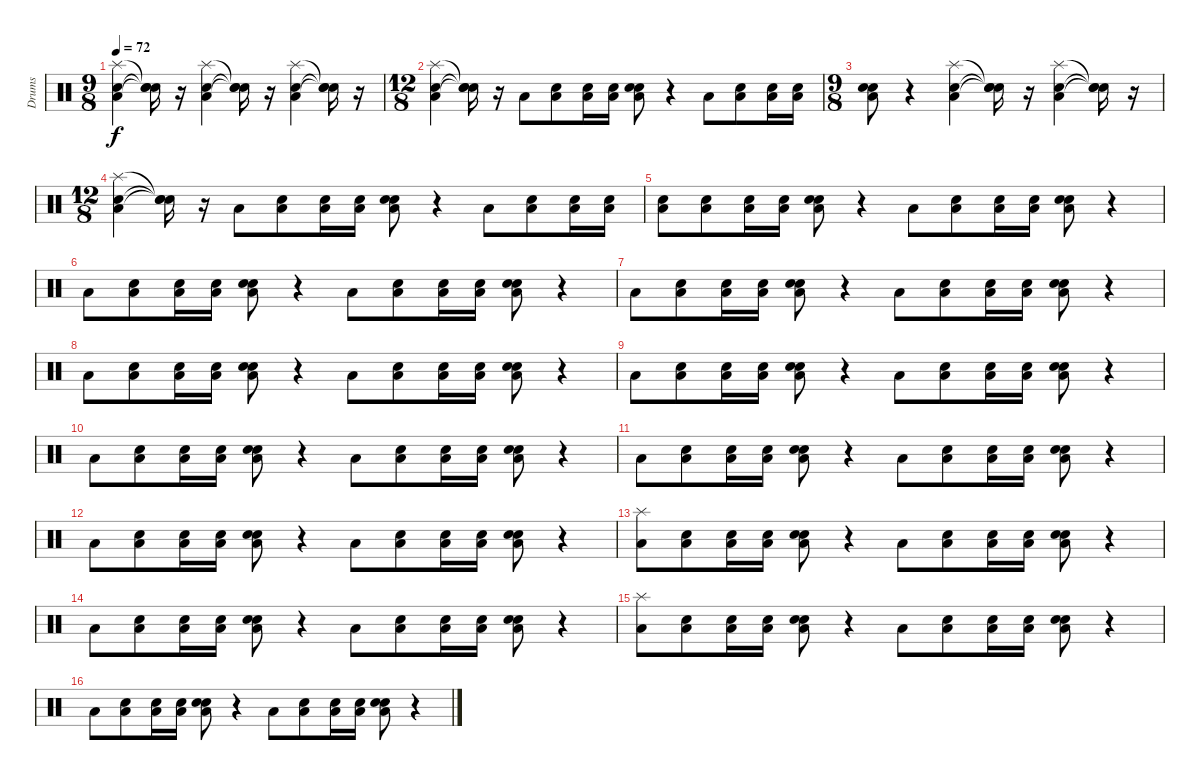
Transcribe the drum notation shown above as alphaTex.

\track ("Drums" "Drums") {instrument percussion}
\staff {score}
\articulation defaults
\ts (9 8)
\tempo 72
\clef neutral
\ks c
("Electric Snare (hit)" "Low Floor Tom (hit)" "Splash (hit)").4{dy f} ("Snare (hit)"{t} "Snare (hit)"{t} "Snare (hit)"{t}).16 r.16 ("Electric Snare (hit)" "Low Floor Tom (hit)" "Splash (hit)").4 ("Snare (hit)"{t} "Snare (hit)"{t} "Snare (hit)"{t}).16 r.16 ("Electric Snare (hit)" "Low Floor Tom (hit)" "Splash (hit)").4 ("Snare (hit)"{t} "Snare (hit)"{t} "Snare (hit)"{t}).16 r.16 |
\ts (12 8)
("Electric Snare (hit)" "Low Floor Tom (hit)" "Splash (hit)").4 ("Snare (hit)"{t} "Snare (hit)"{t} "Snare (hit)"{t}).16 r.16 "Low Floor Tom (hit)".8 ("Snare (hit)" "Low Floor Tom (hit)").8 ("Snare (hit)" "Low Floor Tom (hit)").16 ("Snare (hit)" "Low Floor Tom (hit)").16 ("Snare (hit)" "Electric Snare (hit)" "Low Floor Tom (hit)").8 r.4 "Low Floor Tom (hit)".8 ("Snare (hit)" "Low Floor Tom (hit)").8 ("Snare (hit)" "Low Floor Tom (hit)").16 ("Snare (hit)" "Low Floor Tom (hit)").16 |
\ts (9 8)
("Snare (hit)" "Electric Snare (hit)" "Low Floor Tom (hit)").8 r.4 ("Electric Snare (hit)" "Low Floor Tom (hit)" "Splash (hit)").4 ("Snare (hit)"{t} "Snare (hit)"{t} "Snare (hit)"{t}).16 r.16 ("Electric Snare (hit)" "Low Floor Tom (hit)" "Splash (hit)").4 ("Snare (hit)"{t} "Snare (hit)"{t} "Snare (hit)"{t}).16 r.16 |
\ts (12 8)
("Electric Snare (hit)" "Low Floor Tom (hit)" "Splash (hit)").4 ("Snare (hit)"{t} "Snare (hit)"{t} "Snare (hit)"{t}).16 r.16 "Low Floor Tom (hit)".8 ("Snare (hit)" "Low Floor Tom (hit)").8 ("Snare (hit)" "Low Floor Tom (hit)").16 ("Snare (hit)" "Low Floor Tom (hit)").16 ("Snare (hit)" "Electric Snare (hit)" "Low Floor Tom (hit)").8 r.4 "Low Floor Tom (hit)".8 ("Snare (hit)" "Low Floor Tom (hit)").8 ("Snare (hit)" "Low Floor Tom (hit)").16 ("Snare (hit)" "Low Floor Tom (hit)").16 |
("Snare (hit)" "Low Floor Tom (hit)").8 ("Snare (hit)" "Low Floor Tom (hit)").8 ("Snare (hit)" "Low Floor Tom (hit)").16 ("Snare (hit)" "Low Floor Tom (hit)").16 ("Snare (hit)" "Electric Snare (hit)" "Low Floor Tom (hit)").8 r.4 "Low Floor Tom (hit)".8 ("Snare (hit)" "Low Floor Tom (hit)").8 ("Snare (hit)" "Low Floor Tom (hit)").16 ("Snare (hit)" "Low Floor Tom (hit)").16 ("Snare (hit)" "Electric Snare (hit)" "Low Floor Tom (hit)").8 r.4 |
"Low Floor Tom (hit)".8 ("Snare (hit)" "Low Floor Tom (hit)").8 ("Snare (hit)" "Low Floor Tom (hit)").16 ("Snare (hit)" "Low Floor Tom (hit)").16 ("Snare (hit)" "Electric Snare (hit)" "Low Floor Tom (hit)").8 r.4 "Low Floor Tom (hit)".8 ("Snare (hit)" "Low Floor Tom (hit)").8 ("Snare (hit)" "Low Floor Tom (hit)").16 ("Snare (hit)" "Low Floor Tom (hit)").16 ("Snare (hit)" "Electric Snare (hit)" "Low Floor Tom (hit)").8 r.4 |
"Low Floor Tom (hit)".8 ("Snare (hit)" "Low Floor Tom (hit)").8 ("Snare (hit)" "Low Floor Tom (hit)").16 ("Snare (hit)" "Low Floor Tom (hit)").16 ("Snare (hit)" "Electric Snare (hit)" "Low Floor Tom (hit)").8 r.4 "Low Floor Tom (hit)".8 ("Snare (hit)" "Low Floor Tom (hit)").8 ("Snare (hit)" "Low Floor Tom (hit)").16 ("Snare (hit)" "Low Floor Tom (hit)").16 ("Snare (hit)" "Electric Snare (hit)" "Low Floor Tom (hit)").8 r.4 |
"Low Floor Tom (hit)".8 ("Snare (hit)" "Low Floor Tom (hit)").8 ("Snare (hit)" "Low Floor Tom (hit)").16 ("Snare (hit)" "Low Floor Tom (hit)").16 ("Snare (hit)" "Electric Snare (hit)" "Low Floor Tom (hit)").8 r.4 "Low Floor Tom (hit)".8 ("Snare (hit)" "Low Floor Tom (hit)").8 ("Snare (hit)" "Low Floor Tom (hit)").16 ("Snare (hit)" "Low Floor Tom (hit)").16 ("Snare (hit)" "Electric Snare (hit)" "Low Floor Tom (hit)").8 r.4 |
"Low Floor Tom (hit)".8 ("Snare (hit)" "Low Floor Tom (hit)").8 ("Snare (hit)" "Low Floor Tom (hit)").16 ("Snare (hit)" "Low Floor Tom (hit)").16 ("Snare (hit)" "Electric Snare (hit)" "Low Floor Tom (hit)").8 r.4 "Low Floor Tom (hit)".8 ("Snare (hit)" "Low Floor Tom (hit)").8 ("Snare (hit)" "Low Floor Tom (hit)").16 ("Snare (hit)" "Low Floor Tom (hit)").16 ("Snare (hit)" "Electric Snare (hit)" "Low Floor Tom (hit)").8 r.4 |
"Low Floor Tom (hit)".8 ("Snare (hit)" "Low Floor Tom (hit)").8 ("Snare (hit)" "Low Floor Tom (hit)").16 ("Snare (hit)" "Low Floor Tom (hit)").16 ("Snare (hit)" "Electric Snare (hit)" "Low Floor Tom (hit)").8 r.4 "Low Floor Tom (hit)".8 ("Snare (hit)" "Low Floor Tom (hit)").8 ("Snare (hit)" "Low Floor Tom (hit)").16 ("Snare (hit)" "Low Floor Tom (hit)").16 ("Snare (hit)" "Electric Snare (hit)" "Low Floor Tom (hit)").8 r.4 |
"Low Floor Tom (hit)".8 ("Snare (hit)" "Low Floor Tom (hit)").8 ("Snare (hit)" "Low Floor Tom (hit)").16 ("Snare (hit)" "Low Floor Tom (hit)").16 ("Snare (hit)" "Electric Snare (hit)" "Low Floor Tom (hit)").8 r.4 "Low Floor Tom (hit)".8 ("Snare (hit)" "Low Floor Tom (hit)").8 ("Snare (hit)" "Low Floor Tom (hit)").16 ("Snare (hit)" "Low Floor Tom (hit)").16 ("Snare (hit)" "Electric Snare (hit)" "Low Floor Tom (hit)").8 r.4 |
"Low Floor Tom (hit)".8 ("Snare (hit)" "Low Floor Tom (hit)").8 ("Snare (hit)" "Low Floor Tom (hit)").16 ("Snare (hit)" "Low Floor Tom (hit)").16 ("Snare (hit)" "Electric Snare (hit)" "Low Floor Tom (hit)").8 r.4 "Low Floor Tom (hit)".8 ("Snare (hit)" "Low Floor Tom (hit)").8 ("Snare (hit)" "Low Floor Tom (hit)").16 ("Snare (hit)" "Low Floor Tom (hit)").16 ("Snare (hit)" "Electric Snare (hit)" "Low Floor Tom (hit)").8 r.4 |
("Low Floor Tom (hit)" "Splash (hit)").8 ("Snare (hit)" "Low Floor Tom (hit)").8 ("Snare (hit)" "Low Floor Tom (hit)").16 ("Snare (hit)" "Low Floor Tom (hit)").16 ("Snare (hit)" "Electric Snare (hit)" "Low Floor Tom (hit)").8 r.4 "Low Floor Tom (hit)".8 ("Snare (hit)" "Low Floor Tom (hit)").8 ("Snare (hit)" "Low Floor Tom (hit)").16 ("Snare (hit)" "Low Floor Tom (hit)").16 ("Snare (hit)" "Electric Snare (hit)" "Low Floor Tom (hit)").8 r.4 |
"Low Floor Tom (hit)".8 ("Snare (hit)" "Low Floor Tom (hit)").8 ("Snare (hit)" "Low Floor Tom (hit)").16 ("Snare (hit)" "Low Floor Tom (hit)").16 ("Snare (hit)" "Electric Snare (hit)" "Low Floor Tom (hit)").8 r.4 "Low Floor Tom (hit)".8 ("Snare (hit)" "Low Floor Tom (hit)").8 ("Snare (hit)" "Low Floor Tom (hit)").16 ("Snare (hit)" "Low Floor Tom (hit)").16 ("Snare (hit)" "Electric Snare (hit)" "Low Floor Tom (hit)").8 r.4 |
("Low Floor Tom (hit)" "Splash (hit)").8 ("Snare (hit)" "Low Floor Tom (hit)").8 ("Snare (hit)" "Low Floor Tom (hit)").16 ("Snare (hit)" "Low Floor Tom (hit)").16 ("Snare (hit)" "Electric Snare (hit)" "Low Floor Tom (hit)").8 r.4 "Low Floor Tom (hit)".8 ("Snare (hit)" "Low Floor Tom (hit)").8 ("Snare (hit)" "Low Floor Tom (hit)").16 ("Snare (hit)" "Low Floor Tom (hit)").16 ("Snare (hit)" "Electric Snare (hit)" "Low Floor Tom (hit)").8 r.4 |
"Low Floor Tom (hit)".8 ("Snare (hit)" "Low Floor Tom (hit)").8 ("Snare (hit)" "Low Floor Tom (hit)").16 ("Snare (hit)" "Low Floor Tom (hit)").16 ("Snare (hit)" "Electric Snare (hit)" "Low Floor Tom (hit)").8 r.4 "Low Floor Tom (hit)".8 ("Snare (hit)" "Low Floor Tom (hit)").8 ("Snare (hit)" "Low Floor Tom (hit)").16 ("Snare (hit)" "Low Floor Tom (hit)").16 ("Snare (hit)" "Electric Snare (hit)" "Low Floor Tom (hit)").8 r.4
